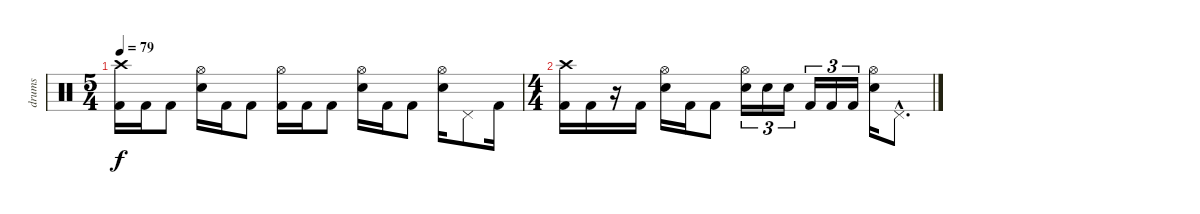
\track ("drums" "drums") {instrument percussion}
\staff {score}
\articulation defaults
\ts (5 4)
\tempo 79
\clef neutral
\ks c
("Crash high (hit)" "Kick (hit) 2").16{dy f} "Kick (hit) 2".16 "Kick (hit) 2".8 ("Hi-Hat (open)" "Electric Snare (hit)").16 "Kick (hit) 2".16 "Kick (hit) 2".8 ("Hi-Hat (open)" "Kick (hit) 2").16 "Kick (hit) 2".16 "Kick (hit) 2".8 ("Hi-Hat (open)" "Electric Snare (hit)").16 "Kick (hit) 2".16 "Kick (hit) 2".8 ("Hi-Hat (open)" "Electric Snare (hit)").16 "Pedal Hi-Hat (hit)".8 "Kick (hit) 2".16 |
\ts (4 4)
("Crash high (hit)" "Kick (hit) 2").16 "Kick (hit) 2".16 r.16 "Kick (hit) 2".16 ("Hi-Hat (open)" "Electric Snare (hit)").16 "Kick (hit) 2".16 "Kick (hit) 2".8 ("Hi-Hat (open)" "Electric Snare (hit)").16{tu (3 2)} "Electric Snare (hit)".16{tu (3 2)} "Electric Snare (hit)".16{tu (3 2)} "Kick (hit) 2".16{tu (3 2)} "Kick (hit) 2".16{tu (3 2)} "Kick (hit) 2".16{tu (3 2)} ("Hi-Hat (open)" "Electric Snare (hit)").16 "Pedal Hi-Hat (hit)"{hac}.8{d}
